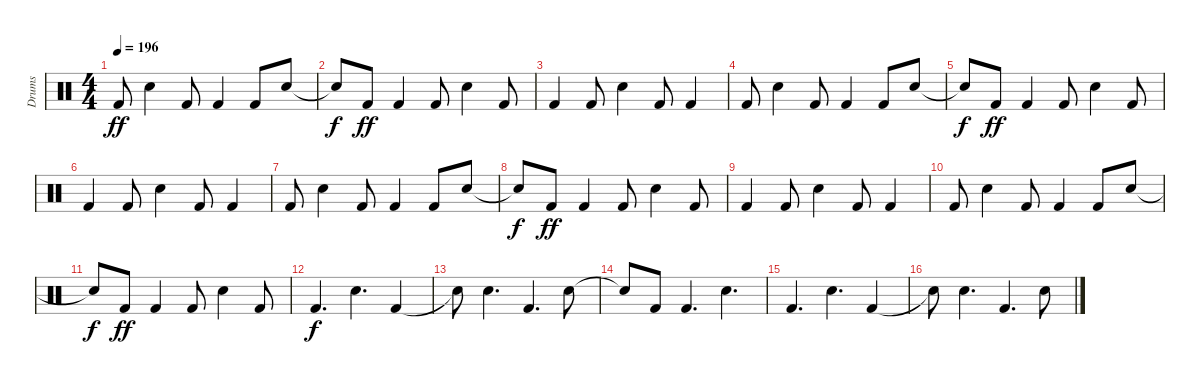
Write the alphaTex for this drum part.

\track ("Drums" "Drums") {instrument percussion}
\staff {score}
\articulation defaults
\ts (4 4)
\tempo 196
\clef neutral
\ks c "Kick (hit) 2".8{dy ff} "Electric Snare (hit)".4 "Kick (hit) 2".8 "Kick (hit) 2".4 "Kick (hit) 2".8 "Electric Snare (hit)".8
|
"Snare (hit)"{t}.8{dy f} "Kick (hit) 2".8{dy ff} "Kick (hit) 2".4 "Kick (hit) 2".8 "Electric Snare (hit)".4 "Kick (hit) 2".8 |
"Kick (hit) 2".4 "Kick (hit) 2".8 "Electric Snare (hit)".4 "Kick (hit) 2".8 "Kick (hit) 2".4 |
"Kick (hit) 2".8 "Electric Snare (hit)".4 "Kick (hit) 2".8 "Kick (hit) 2".4 "Kick (hit) 2".8 "Electric Snare (hit)".8 |
"Snare (hit)"{t}.8{dy f} "Kick (hit) 2".8{dy ff} "Kick (hit) 2".4 "Kick (hit) 2".8 "Electric Snare (hit)".4 "Kick (hit) 2".8 |
"Kick (hit) 2".4 "Kick (hit) 2".8 "Electric Snare (hit)".4 "Kick (hit) 2".8 "Kick (hit) 2".4 |
"Kick (hit) 2".8 "Electric Snare (hit)".4 "Kick (hit) 2".8 "Kick (hit) 2".4 "Kick (hit) 2".8 "Electric Snare (hit)".8 |
"Snare (hit)"{t}.8{dy f} "Kick (hit) 2".8{dy ff} "Kick (hit) 2".4 "Kick (hit) 2".8 "Electric Snare (hit)".4 "Kick (hit) 2".8 |
"Kick (hit) 2".4 "Kick (hit) 2".8 "Electric Snare (hit)".4 "Kick (hit) 2".8 "Kick (hit) 2".4 |
"Kick (hit) 2".8 "Electric Snare (hit)".4 "Kick (hit) 2".8 "Kick (hit) 2".4 "Kick (hit) 2".8 "Electric Snare (hit)".8 |
"Snare (hit)"{t}.8{dy f} "Kick (hit) 2".8{dy ff} "Kick (hit) 2".4 "Kick (hit) 2".8 "Electric Snare (hit)".4 "Kick (hit) 2".8 |
"Kick (hit) 2".4{d dy f} "Electric Snare (hit)".4{d} "Kick (hit) 2".4 |
"Snare (hit)"{t}.8 "Electric Snare (hit)".4{d} "Kick (hit) 2".4{d} "Electric Snare (hit)".8 |
"Snare (hit)"{t}.8 "Kick (hit) 2".8 "Kick (hit) 2".4{d} "Electric Snare (hit)".4{d} |
"Kick (hit) 2".4{d} "Electric Snare (hit)".4{d} "Kick (hit) 2".4 |
"Snare (hit)"{t}.8 "Electric Snare (hit)".4{d} "Kick (hit) 2".4{d} "Electric Snare (hit)".8
